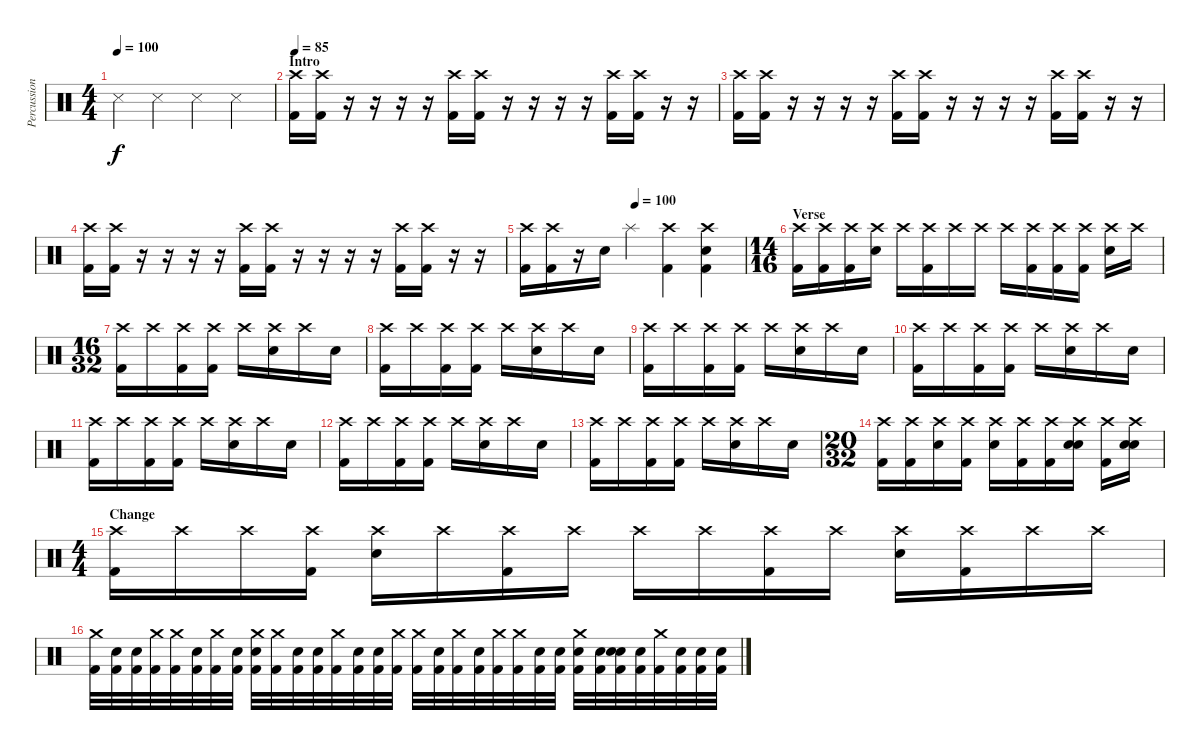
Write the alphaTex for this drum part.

\track ("Percussion" "Percussion") {instrument percussion}
\staff {score}
\articulation defaults
\ts (4 4)
\tempo 100
\clef neutral
\ks c "Snare (side stick) 3".4{dy f} "Snare (side stick) 3".4 "Snare (side stick) 3".4 "Snare (side stick) 3".4
|
\section ("" "Intro")
\tempo 85
("Crash high (hit)" "Kick (hit) 2").16 ("Crash high (hit)" "Kick (hit) 2").16 r.16 r.16 r.16 r.16 ("Crash high (hit)" "Kick (hit) 2").16 ("Crash high (hit)" "Kick (hit) 2").16 r.16 r.16 r.16 r.16 ("Crash high (hit)" "Kick (hit) 2").16 ("Crash high (hit)" "Kick (hit) 2").16 r.16 r.16 |
("Crash high (hit)" "Kick (hit) 2").16 ("Crash high (hit)" "Kick (hit) 2").16 r.16 r.16 r.16 r.16 ("Crash high (hit)" "Kick (hit) 2").16 ("Crash high (hit)" "Kick (hit) 2").16 r.16 r.16 r.16 r.16 ("Crash high (hit)" "Kick (hit) 2").16 ("Crash high (hit)" "Kick (hit) 2").16 r.16 r.16 |
("Crash high (hit)" "Kick (hit) 2").16 ("Crash high (hit)" "Kick (hit) 2").16 r.16 r.16 r.16 r.16 ("Crash high (hit)" "Kick (hit) 2").16 ("Crash high (hit)" "Kick (hit) 2").16 r.16 r.16 r.16 r.16 ("Crash high (hit)" "Kick (hit) 2").16 ("Crash high (hit)" "Kick (hit) 2").16 r.16 r.16 |
\tempo (100 0.5)
("Crash high (hit)" "Kick (hit) 2").16 ("Crash high (hit)" "Kick (hit) 2").16 r.16 "Snare (hit)"{x}.16 "Splash (hit)".4 ("Crash high (hit)" "Kick (hit) 2").4 ("Crash high (hit)" "Snare (hit)"{x} "Kick (hit) 2").4 |
\ts (14 16)
\section ("" "Verse")
("Crash high (hit)" "Kick (hit) 2").16 ("Crash high (hit)"{x} "Kick (hit) 2").16 ("Crash high (hit)" "Kick (hit) 2").16 ("Crash high (hit)"{x} "Electric Snare (hit)").16 "Crash high (hit)".16 ("Crash high (hit)"{x} "Kick (hit) 2").16 "Crash high (hit)".16 "Crash high (hit)"{x}.16 "Crash high (hit)".16 ("Crash high (hit)"{x} "Kick (hit) 2").16 ("Crash high (hit)" "Kick (hit) 2").16 ("Crash high (hit)"{x} "Kick (hit) 2").16 ("Crash high (hit)" "Electric Snare (hit)").16 "Crash high (hit)"{x}.16 |
\ts (16 32)
("Crash high (hit)" "Kick (hit) 2").16 "Crash high (hit)"{x}.16 ("Crash high (hit)" "Kick (hit) 2").16 ("Crash high (hit)"{x} "Kick (hit) 2").16 "Crash high (hit)".16 ("Crash high (hit)"{x} "Electric Snare (hit)").16 "Crash high (hit)".16 "Snare (hit)"{x}.16 |
("Crash high (hit)" "Kick (hit) 2").16 "Crash high (hit)"{x}.16 ("Crash high (hit)" "Kick (hit) 2").16 ("Crash high (hit)"{x} "Kick (hit) 2").16 "Crash high (hit)".16 ("Crash high (hit)"{x} "Electric Snare (hit)").16 "Crash high (hit)".16 "Snare (hit)"{x}.16 |
("Crash high (hit)" "Kick (hit) 2").16 "Crash high (hit)"{x}.16 ("Crash high (hit)" "Kick (hit) 2").16 ("Crash high (hit)"{x} "Kick (hit) 2").16 "Crash high (hit)".16 ("Crash high (hit)"{x} "Electric Snare (hit)").16 "Crash high (hit)".16 "Snare (hit)"{x}.16 |
("Crash high (hit)" "Kick (hit) 2").16 "Crash high (hit)"{x}.16 ("Crash high (hit)" "Kick (hit) 2").16 ("Crash high (hit)"{x} "Kick (hit) 2").16 "Crash high (hit)".16 ("Crash high (hit)"{x} "Electric Snare (hit)").16 "Crash high (hit)".16 "Snare (hit)"{x}.16 |
("Crash high (hit)" "Kick (hit) 2").16 "Crash high (hit)"{x}.16 ("Crash high (hit)" "Kick (hit) 2").16 ("Crash high (hit)"{x} "Kick (hit) 2").16 "Crash high (hit)".16 ("Crash high (hit)"{x} "Electric Snare (hit)").16 "Crash high (hit)".16 "Snare (hit)"{x}.16 |
("Crash high (hit)" "Kick (hit) 2").16 "Crash high (hit)"{x}.16 ("Crash high (hit)" "Kick (hit) 2").16 ("Crash high (hit)"{x} "Kick (hit) 2").16 "Crash high (hit)".16 ("Crash high (hit)"{x} "Electric Snare (hit)").16 "Crash high (hit)".16 "Snare (hit)"{x}.16 |
("Crash high (hit)" "Kick (hit) 2").16 "Crash high (hit)"{x}.16 ("Crash high (hit)" "Kick (hit) 2").16 ("Crash high (hit)"{x} "Kick (hit) 2").16 "Crash high (hit)".16 ("Crash high (hit)"{x} "Electric Snare (hit)").16 "Crash high (hit)".16 "Snare (hit)"{x}.16 |
\ts (20 32)
("Crash high (hit)"{x} "Kick (hit) 2").16 ("Crash high (hit)"{x} "Kick (hit) 2").16 ("Crash high (hit)"{x} "Electric Snare (hit)").16 ("Crash high (hit)"{x} "Kick (hit) 2").16 ("Crash high (hit)"{x} "Electric Snare (hit)").16 ("Crash high (hit)"{x} "Kick (hit) 2").16 ("Crash high (hit)"{x} "Kick (hit) 2").16 ("Crash high (hit)"{x} "Electric Snare (hit)" "Snare (hit) 2").16 ("Crash high (hit)"{x} "Kick (hit) 2").16 ("Crash high (hit)"{x} "Electric Snare (hit)" "Snare (hit) 2").16 |
\ts (4 4)
\section ("" "Change")
("Crash high (hit)" "Kick (hit) 2").16 "Crash high (hit)"{x}.16 "Crash high (hit)".16 ("Crash high (hit)"{x} "Kick (hit) 2").16 ("Crash high (hit)" "Electric Snare (hit)").16 "Crash high (hit)"{x}.16 ("Crash high (hit)" "Kick (hit) 2").16 "Crash high (hit)"{x}.16 "Crash high (hit)".16 "Crash high (hit)"{x}.16 ("Crash high (hit)" "Kick (hit) 2").16 "Crash high (hit)"{x}.16 ("Crash high (hit)" "Electric Snare (hit)").16 ("Crash high (hit)"{x} "Kick (hit) 2").16 "Crash high (hit)".16 "Crash high (hit)"{x}.16 |
("Crash medium (hit)" "Kick (hit) 2").32 ("Snare (hit)"{x} "Kick (hit) 2").32 ("Snare (hit)"{x} "Kick (hit) 2").32 ("Crash medium (hit)"{x} "Kick (hit) 2").32 ("Crash medium (hit)" "Kick (hit) 2").32 ("Snare (hit)"{x} "Kick (hit) 2").32 ("Crash medium (hit)"{x} "Kick (hit) 2").32 ("Snare (hit)"{x} "Kick (hit) 2").32 ("Crash medium (hit)" "Electric Snare (hit)" "Kick (hit) 2").32 ("Crash medium (hit)"{x} "Kick (hit) 2").32 ("Snare (hit)"{x} "Kick (hit) 2").32 ("Snare (hit)"{x} "Kick (hit) 2").32 ("Crash medium (hit)" "Kick (hit) 2").32 ("Snare (hit)"{x} "Kick (hit) 2").32 ("Snare (hit)"{x} "Kick (hit) 2").32 ("Crash medium (hit)"{x} "Kick (hit) 2").32 ("Crash medium (hit)" "Kick (hit) 2").32 ("Snare (hit)"{x} "Kick (hit) 2").32 ("Crash medium (hit)"{x} "Kick (hit) 2").32 ("Snare (hit)"{x} "Kick (hit) 2").32 ("Crash medium (hit)" "Kick (hit) 2").32 ("Crash medium (hit)"{x} "Kick (hit) 2").32 ("Snare (hit)"{x} "Kick (hit) 2").32 ("Snare (hit)"{x} "Kick (hit) 2").32 ("Crash medium (hit)" "Electric Snare (hit)" "Kick (hit) 2").32 ("Snare (hit)"{x} "Kick (hit) 2").32 ("Snare (hit)"{x} "Snare (hit)"{x} "Kick (hit) 2").32 ("Snare (hit)"{x} "Kick (hit) 2").32 ("Crash medium (hit)" "Kick (hit) 2").32 ("Snare (hit)"{x} "Kick (hit) 2").32 ("Snare (hit)"{x} "Kick (hit) 2").32 ("Snare (hit)"{x} "Kick (hit) 2").32
